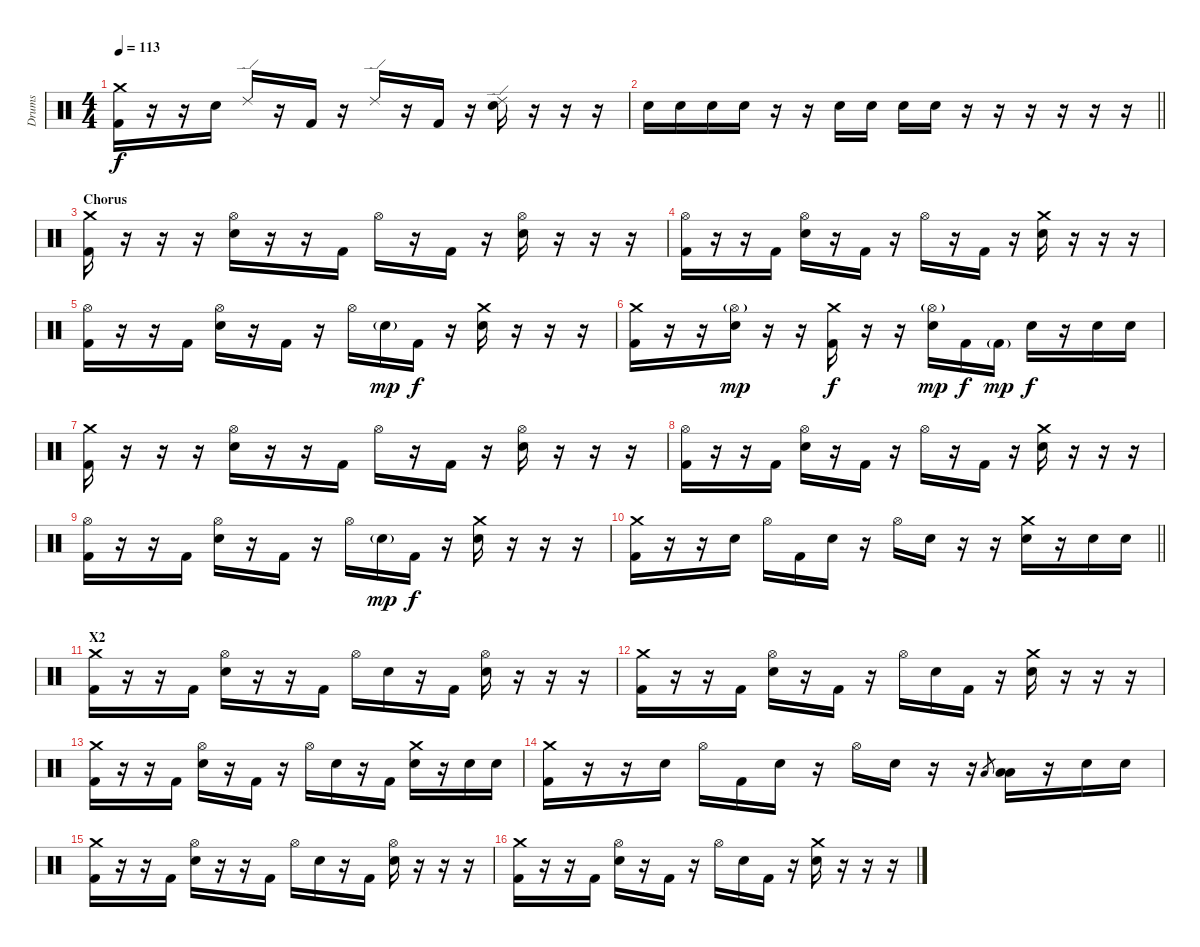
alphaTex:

\track ("Drums" "Drums") {instrument percussion}
\staff {score}
\articulation defaults
\ts (4 4)
\tempo 113
\clef neutral
\ks c
("Crash medium (hit)" "Kick (hit) 2").16{dy f} r.16 r.16 "Electric Snare (hit)".16 "Ride (edge) 2".16 r.16 "Kick (hit) 2".16 r.16 "Ride (edge) 2".16 r.16 "Kick (hit) 2".16 r.16 ("Ride (edge) 2" "Electric Snare (hit)").16 r.16 r.16 r.16 |
\barLineRight lightlight "Electric Snare (hit)".16 "Electric Snare (hit)".16 "Electric Snare (hit)".16 "Electric Snare (hit)".16
r.16 r.16 "Electric Snare (hit)".16 "Electric Snare (hit)".16 "Electric Snare (hit)".16 "Electric Snare (hit)".16 r.16 r.16 r.16 r.16 r.16 r.16 |
\section ("" "Chorus")
("Crash medium (hit)" "Kick (hit) 2").16 r.16 r.16 r.16 ("Hi-Hat (open)" "Electric Snare (hit)").16 r.16 r.16 "Kick (hit) 2".16 "Hi-Hat (open)".16 r.16 "Kick (hit) 2".16 r.16 ("Hi-Hat (open)" "Electric Snare (hit)").16 r.16 r.16 r.16 |
("Hi-Hat (open)" "Kick (hit) 2").16 r.16 r.16 "Kick (hit) 2".16 ("Hi-Hat (open)" "Electric Snare (hit)").16 r.16 "Kick (hit) 2".16 r.16 "Hi-Hat (open)".16 r.16 "Kick (hit) 2".16 r.16 ("Crash medium (hit)" "Electric Snare (hit)").16 r.16 r.16 r.16 |
("Hi-Hat (open)" "Kick (hit) 2").16 r.16 r.16 "Kick (hit) 2".16 ("Hi-Hat (open)" "Electric Snare (hit)").16 r.16 "Kick (hit) 2".16 r.16 "Hi-Hat (open)".16 "Electric Snare (hit)"{g}.16{dy mp} "Kick (hit) 2".16{dy f} r.16 ("Crash medium (hit)" "Electric Snare (hit)").16 r.16 r.16 r.16 |
("Crash medium (hit)" "Kick (hit) 2").16 r.16 r.16 ("Hi-Hat (open)"{g} "Electric Snare (hit)").16{dy mp} r.16 r.16 ("Crash medium (hit)" "Kick (hit) 2").16{dy f} r.16 r.16 ("Hi-Hat (open)"{g} "Electric Snare (hit)").16{dy mp} "Kick (hit) 2".16{dy f} "Kick (hit) 2"{g}.16{dy mp} "Electric Snare (hit)".16{dy f} r.16 "Electric Snare (hit)".16 "Electric Snare (hit)".16 |
("Crash medium (hit)" "Kick (hit) 2").16 r.16 r.16 r.16 ("Hi-Hat (open)" "Electric Snare (hit)").16 r.16 r.16 "Kick (hit) 2".16 "Hi-Hat (open)".16 r.16 "Kick (hit) 2".16 r.16 ("Hi-Hat (open)" "Electric Snare (hit)").16 r.16 r.16 r.16 |
("Hi-Hat (open)" "Kick (hit) 2").16 r.16 r.16 "Kick (hit) 2".16 ("Hi-Hat (open)" "Electric Snare (hit)").16 r.16 "Kick (hit) 2".16 r.16 "Hi-Hat (open)".16 r.16 "Kick (hit) 2".16 r.16 ("Crash medium (hit)" "Electric Snare (hit)").16 r.16 r.16 r.16 |
("Hi-Hat (open)" "Kick (hit) 2").16 r.16 r.16 "Kick (hit) 2".16 ("Hi-Hat (open)" "Electric Snare (hit)").16 r.16 "Kick (hit) 2".16 r.16 "Hi-Hat (open)".16 "Electric Snare (hit)"{g}.16{dy mp} "Kick (hit) 2".16{dy f} r.16 ("Crash medium (hit)" "Electric Snare (hit)").16 r.16 r.16 r.16 |
\barLineRight lightlight
("Crash medium (hit)" "Kick (hit) 2").16 r.16 r.16 "Electric Snare (hit)".16 "Hi-Hat (open)".16 "Kick (hit) 2".16 "Electric Snare (hit)".16 r.16 "Hi-Hat (open)".16 "Electric Snare (hit)".16 r.16 r.16 ("Crash medium (hit)" "Electric Snare (hit)").16 r.16 "Electric Snare (hit)".16 "Electric Snare (hit)".16 |
\section ("" "X2")
("Crash medium (hit)" "Kick (hit) 2").16 r.16 r.16 "Kick (hit) 2".16 ("Hi-Hat (open)" "Electric Snare (hit)").16 r.16 r.16 "Kick (hit) 2".16 "Hi-Hat (open)".16 "Electric Snare (hit)".16 r.16 "Kick (hit) 2".16 ("Hi-Hat (open)" "Electric Snare (hit)").16 r.16 r.16 r.16 |
("Crash medium (hit)" "Kick (hit) 2").16 r.16 r.16 "Kick (hit) 2".16 ("Hi-Hat (open)" "Electric Snare (hit)").16 r.16 "Kick (hit) 2".16 r.16 "Hi-Hat (open)".16 "Electric Snare (hit)".16 "Kick (hit) 2".16 r.16 ("Crash medium (hit)" "Electric Snare (hit)").16 r.16 r.16 r.16 |
("Crash medium (hit)" "Kick (hit) 2").16 r.16 r.16 "Kick (hit) 2".16 ("Hi-Hat (open)" "Electric Snare (hit)").16 r.16 "Kick (hit) 2".16 r.16 "Hi-Hat (open)".16 "Electric Snare (hit)".16 r.16 "Kick (hit) 2".16 ("Crash medium (hit)" "Electric Snare (hit)").16 r.16 "Electric Snare (hit)".16 "Electric Snare (hit)".16 |
("Crash medium (hit)" "Kick (hit) 2").16 r.16 r.16 "Electric Snare (hit)".16 "Hi-Hat (open)".16 "Kick (hit) 2".16 "Electric Snare (hit)".16 r.16 "Hi-Hat (open)".16 "Electric Snare (hit)".16 r.16 r.16 "Low Tom (hit)".8{gr} ("Low Tom (hit)" "Low Tom (hit)").16 r.16 "Electric Snare (hit)".16 "Electric Snare (hit)".16 |
("Crash medium (hit)" "Kick (hit) 2").16 r.16 r.16 "Kick (hit) 2".16 ("Hi-Hat (open)" "Electric Snare (hit)").16 r.16 r.16 "Kick (hit) 2".16 "Hi-Hat (open)".16 "Electric Snare (hit)".16 r.16 "Kick (hit) 2".16 ("Hi-Hat (open)" "Electric Snare (hit)").16 r.16 r.16 r.16 |
("Crash medium (hit)" "Kick (hit) 2").16 r.16 r.16 "Kick (hit) 2".16 ("Hi-Hat (open)" "Electric Snare (hit)").16 r.16 "Kick (hit) 2".16 r.16 "Hi-Hat (open)".16 "Electric Snare (hit)".16 "Kick (hit) 2".16 r.16 ("Crash medium (hit)" "Electric Snare (hit)").16 r.16 r.16 r.16
